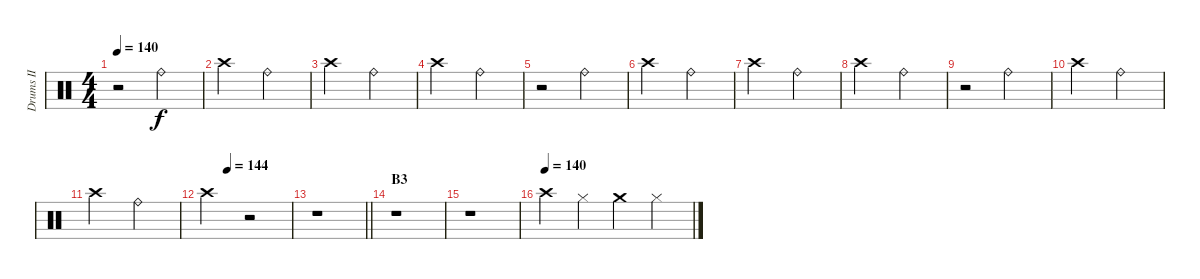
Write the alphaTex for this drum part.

\track ("Drums II" "Drums II") {instrument percussion}
\staff {score}
\articulation defaults
\ts (4 4)
\tempo 140
\clef neutral
\ks c
r.2{dy f} "Ride (bell)".2 |
"Crash high (hit)".2 "Ride (bell)".2 |
"Crash high (hit)".2 "Ride (bell)".2 |
"Crash high (hit)".2 "Ride (bell)".2 |
r.2 "Ride (bell)".2 |
"Crash high (hit)".2 "Ride (bell)".2 |
"Crash high (hit)".2 "Ride (bell)".2 |
"Crash high (hit)".2 "Ride (bell)".2 |
r.2 "Ride (bell)".2 |
"Crash high (hit)".2 "Ride (bell)".2 |
"Crash high (hit)".2 "Ride (bell)".2 |
\tempo (144 0.25)
"Crash high (hit)".2 r.2 |
\barLineRight lightlight
r.1 |
\section ("" "B3")
r.1 |
r.1 |
\tempo (140)
"Crash high (hit)".4 "Hi-Hat (closed)".4 "Crash medium (hit)".4 "Hi-Hat (closed)".4
